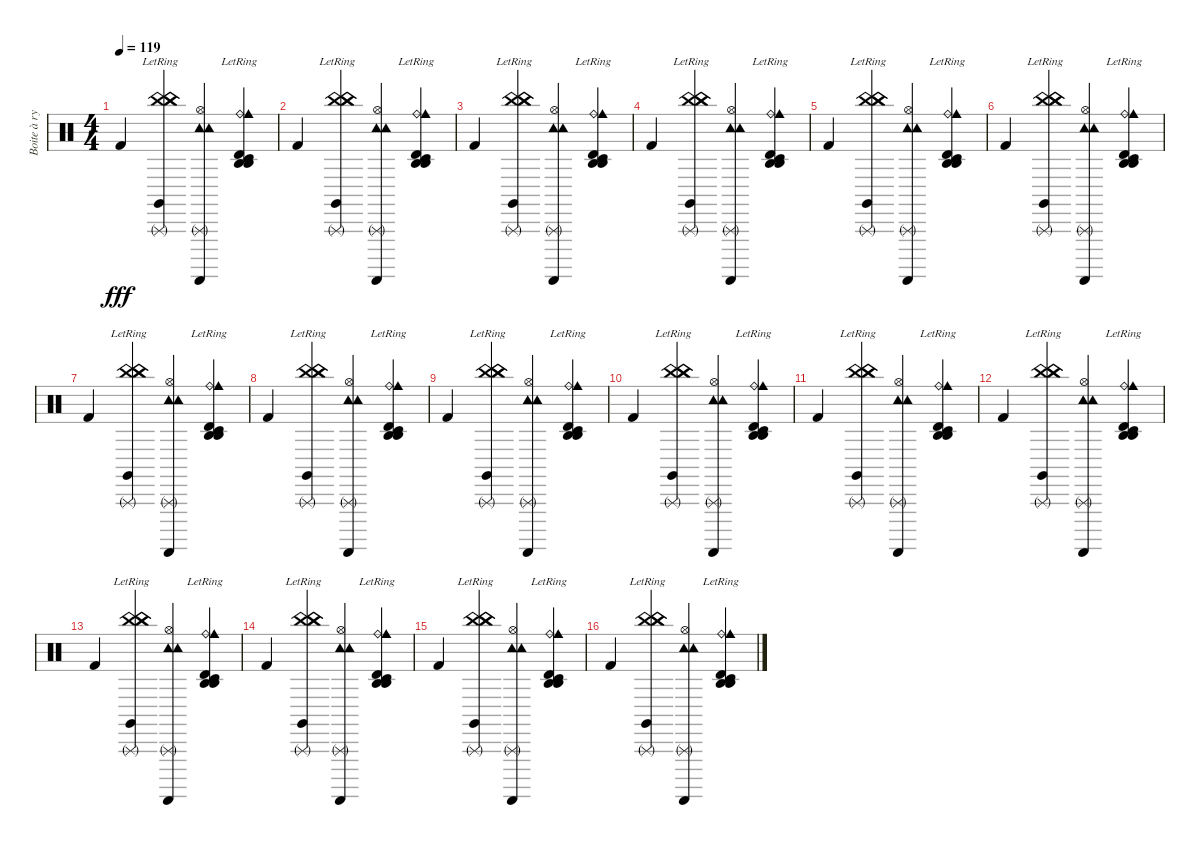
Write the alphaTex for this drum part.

\track ("Boite à rythme" "Boite à ry") {instrument percussion}
\staff {score}
\articulation defaults
\ts (4 4)
\tempo 119
\clef neutral
\ks c "Kick (hit) 2".4{dy fff}
("China (hit)" "China (hit)" "Triangle (rnute)" "Claves (hit)" "China (hit)"{lr}).4 ("Hi-Hat (open)" "Tambourine (hit)" "Triangle (rnute)" "Guiro (scrap-return)" "Tambourine (hit)").4 ("Ride (bell)" "Agogo high (hit)"{lr} "Timbale high (hit)" "Agogo high (hit)" "Cowbell medium (hit)" "Timbale low (hit)").4 |
"Kick (hit) 2".4 ("China (hit)" "China (hit)" "Triangle (rnute)" "Claves (hit)" "China (hit)"{lr}).4 ("Hi-Hat (open)" "Tambourine (hit)" "Triangle (rnute)" "Guiro (scrap-return)" "Tambourine (hit)").4 ("Ride (bell)" "Agogo high (hit)"{lr} "Timbale high (hit)" "Agogo high (hit)" "Cowbell medium (hit)" "Timbale low (hit)").4 |
"Kick (hit) 2".4 ("China (hit)" "China (hit)" "Triangle (rnute)" "Claves (hit)" "China (hit)"{lr}).4 ("Hi-Hat (open)" "Tambourine (hit)" "Triangle (rnute)" "Guiro (scrap-return)" "Tambourine (hit)").4 ("Ride (bell)" "Agogo high (hit)"{lr} "Timbale high (hit)" "Agogo high (hit)" "Cowbell medium (hit)" "Timbale low (hit)").4 |
"Kick (hit) 2".4 ("China (hit)" "China (hit)" "Triangle (rnute)" "Claves (hit)" "China (hit)"{lr}).4 ("Hi-Hat (open)" "Tambourine (hit)" "Triangle (rnute)" "Guiro (scrap-return)" "Tambourine (hit)").4 ("Ride (bell)" "Agogo high (hit)"{lr} "Timbale high (hit)" "Agogo high (hit)" "Cowbell medium (hit)" "Timbale low (hit)").4 |
"Kick (hit) 2".4 ("China (hit)" "China (hit)" "Triangle (rnute)" "Claves (hit)" "China (hit)"{lr}).4 ("Hi-Hat (open)" "Tambourine (hit)" "Triangle (rnute)" "Guiro (scrap-return)" "Tambourine (hit)").4 ("Ride (bell)" "Agogo high (hit)"{lr} "Timbale high (hit)" "Agogo high (hit)" "Cowbell medium (hit)" "Timbale low (hit)").4 |
"Kick (hit) 2".4 ("China (hit)" "China (hit)" "Triangle (rnute)" "Claves (hit)" "China (hit)"{lr}).4 ("Hi-Hat (open)" "Tambourine (hit)" "Triangle (rnute)" "Guiro (scrap-return)" "Tambourine (hit)").4 ("Ride (bell)" "Agogo high (hit)"{lr} "Timbale high (hit)" "Agogo high (hit)" "Cowbell medium (hit)" "Timbale low (hit)").4 |
"Kick (hit) 2".4 ("China (hit)" "China (hit)" "Triangle (rnute)" "Claves (hit)" "China (hit)"{lr}).4 ("Hi-Hat (open)" "Tambourine (hit)" "Triangle (rnute)" "Guiro (scrap-return)" "Tambourine (hit)").4 ("Ride (bell)" "Agogo high (hit)"{lr} "Timbale high (hit)" "Agogo high (hit)" "Cowbell medium (hit)" "Timbale low (hit)").4 |
"Kick (hit) 2".4 ("China (hit)" "China (hit)" "Triangle (rnute)" "Claves (hit)" "China (hit)"{lr}).4 ("Hi-Hat (open)" "Tambourine (hit)" "Triangle (rnute)" "Guiro (scrap-return)" "Tambourine (hit)").4 ("Ride (bell)" "Agogo high (hit)"{lr} "Timbale high (hit)" "Agogo high (hit)" "Cowbell medium (hit)" "Timbale low (hit)").4 |
"Kick (hit) 2".4 ("China (hit)" "China (hit)" "Triangle (rnute)" "Claves (hit)" "China (hit)"{lr}).4 ("Hi-Hat (open)" "Tambourine (hit)" "Triangle (rnute)" "Guiro (scrap-return)" "Tambourine (hit)").4 ("Ride (bell)" "Agogo high (hit)"{lr} "Timbale high (hit)" "Agogo high (hit)" "Cowbell medium (hit)" "Timbale low (hit)").4 |
"Kick (hit) 2".4 ("China (hit)" "China (hit)" "Triangle (rnute)" "Claves (hit)" "China (hit)"{lr}).4 ("Hi-Hat (open)" "Tambourine (hit)" "Triangle (rnute)" "Guiro (scrap-return)" "Tambourine (hit)").4 ("Ride (bell)" "Agogo high (hit)"{lr} "Timbale high (hit)" "Agogo high (hit)" "Cowbell medium (hit)" "Timbale low (hit)").4 |
"Kick (hit) 2".4 ("China (hit)" "China (hit)" "Triangle (rnute)" "Claves (hit)" "China (hit)"{lr}).4 ("Hi-Hat (open)" "Tambourine (hit)" "Triangle (rnute)" "Guiro (scrap-return)" "Tambourine (hit)").4 ("Ride (bell)" "Agogo high (hit)"{lr} "Timbale high (hit)" "Agogo high (hit)" "Cowbell medium (hit)" "Timbale low (hit)").4 |
"Kick (hit) 2".4 ("China (hit)" "China (hit)" "Triangle (rnute)" "Claves (hit)" "China (hit)"{lr}).4 ("Hi-Hat (open)" "Tambourine (hit)" "Triangle (rnute)" "Guiro (scrap-return)" "Tambourine (hit)").4 ("Ride (bell)" "Agogo high (hit)"{lr} "Timbale high (hit)" "Agogo high (hit)" "Cowbell medium (hit)" "Timbale low (hit)").4 |
"Kick (hit) 2".4 ("China (hit)" "China (hit)" "Triangle (rnute)" "Claves (hit)" "China (hit)"{lr}).4 ("Hi-Hat (open)" "Tambourine (hit)" "Triangle (rnute)" "Guiro (scrap-return)" "Tambourine (hit)").4 ("Ride (bell)" "Agogo high (hit)"{lr} "Timbale high (hit)" "Agogo high (hit)" "Cowbell medium (hit)" "Timbale low (hit)").4 |
"Kick (hit) 2".4 ("China (hit)" "China (hit)" "Triangle (rnute)" "Claves (hit)" "China (hit)"{lr}).4 ("Hi-Hat (open)" "Tambourine (hit)" "Triangle (rnute)" "Guiro (scrap-return)" "Tambourine (hit)").4 ("Ride (bell)" "Agogo high (hit)"{lr} "Timbale high (hit)" "Agogo high (hit)" "Cowbell medium (hit)" "Timbale low (hit)").4 |
"Kick (hit) 2".4 ("China (hit)" "China (hit)" "Triangle (rnute)" "Claves (hit)" "China (hit)"{lr}).4 ("Hi-Hat (open)" "Tambourine (hit)" "Triangle (rnute)" "Guiro (scrap-return)" "Tambourine (hit)").4 ("Ride (bell)" "Agogo high (hit)"{lr} "Timbale high (hit)" "Agogo high (hit)" "Cowbell medium (hit)" "Timbale low (hit)").4 |
"Kick (hit) 2".4 ("China (hit)" "China (hit)" "Triangle (rnute)" "Claves (hit)" "China (hit)"{lr}).4 ("Hi-Hat (open)" "Tambourine (hit)" "Triangle (rnute)" "Guiro (scrap-return)" "Tambourine (hit)").4 ("Ride (bell)" "Agogo high (hit)"{lr} "Timbale high (hit)" "Agogo high (hit)" "Cowbell medium (hit)" "Timbale low (hit)").4
